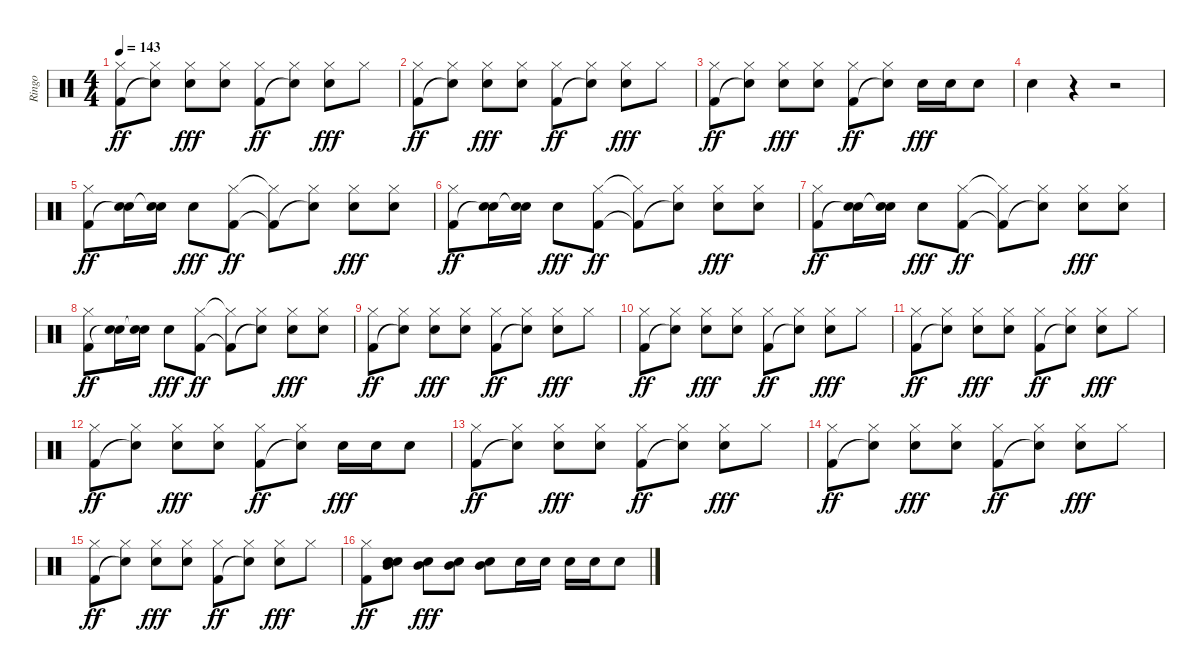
\track ("Ringo" "Ringo") {instrument percussion}
\staff {score}
\articulation defaults
\ts (4 4)
\tempo 143
\clef neutral
\ks c
("Hi-Hat (closed)" "Kick (hit) 2").8{dy ff} ("Hi-Hat (closed)" "Snare (hit)"{t}).8 ("Hi-Hat (closed)" "Snare (hit) 2").8{dy fff} ("Hi-Hat (closed)" "Snare (hit) 2").8 ("Hi-Hat (closed)" "Kick (hit) 2").8{dy ff} ("Hi-Hat (closed)" "Snare (hit)"{t}).8 ("Hi-Hat (closed)" "Snare (hit) 2").8{dy fff} "Hi-Hat (closed)".8 |
("Hi-Hat (closed)" "Kick (hit) 2").8{dy ff} ("Hi-Hat (closed)" "Snare (hit)"{t}).8 ("Hi-Hat (closed)" "Snare (hit) 2").8{dy fff} ("Hi-Hat (closed)" "Snare (hit) 2").8 ("Hi-Hat (closed)" "Kick (hit) 2").8{dy ff} ("Hi-Hat (closed)" "Snare (hit)"{t}).8 ("Hi-Hat (closed)" "Snare (hit) 2").8{dy fff} "Hi-Hat (closed)".8 |
("Hi-Hat (closed)" "Kick (hit) 2").8{dy ff} ("Hi-Hat (closed)" "Snare (hit)"{t}).8 ("Hi-Hat (closed)" "Snare (hit) 2").8{dy fff} ("Hi-Hat (closed)" "Snare (hit) 2").8 ("Hi-Hat (closed)" "Kick (hit) 2").8{dy ff} ("Hi-Hat (closed)" "Snare (hit)"{t}).8 "Snare (hit) 2".16{dy fff} "Snare (hit) 2".16 "Snare (hit) 2".8 |
"Snare (hit) 2".4 r.4 r.2 |
("Hi-Hat (closed)" "Kick (hit) 2").8{dy ff} ("Snare (hit) 2" "Snare (hit)"{t}).16 ("Snare (hit) 2" "Snare (hit)"{t}).16 "Snare (hit) 2".8{dy fff} ("Hi-Hat (closed)" "Kick (hit) 2").8{dy ff} ("Hi-Hat (closed)"{t} "Kick (hit) 2"{t}).8 ("Hi-Hat (closed)" "Snare (hit)"{t}).8 ("Hi-Hat (closed)" "Snare (hit) 2").8{dy fff} ("Hi-Hat (closed)" "Snare (hit) 2").8 |
("Hi-Hat (closed)" "Kick (hit) 2").8{dy ff} ("Snare (hit) 2" "Snare (hit)"{t}).16 ("Snare (hit) 2" "Snare (hit)"{t}).16 "Snare (hit) 2".8{dy fff} ("Hi-Hat (closed)" "Kick (hit) 2").8{dy ff} ("Hi-Hat (closed)"{t} "Kick (hit) 2"{t}).8 ("Hi-Hat (closed)" "Snare (hit)"{t}).8 ("Hi-Hat (closed)" "Snare (hit) 2").8{dy fff} ("Hi-Hat (closed)" "Snare (hit) 2").8 |
("Hi-Hat (closed)" "Kick (hit) 2").8{dy ff} ("Snare (hit) 2" "Snare (hit)"{t}).16 ("Snare (hit) 2" "Snare (hit)"{t}).16 "Snare (hit) 2".8{dy fff} ("Hi-Hat (closed)" "Kick (hit) 2").8{dy ff} ("Hi-Hat (closed)"{t} "Kick (hit) 2"{t}).8 ("Hi-Hat (closed)" "Snare (hit)"{t}).8 ("Hi-Hat (closed)" "Snare (hit) 2").8{dy fff} ("Hi-Hat (closed)" "Snare (hit) 2").8 |
("Hi-Hat (closed)" "Kick (hit) 2").8{dy ff} ("Snare (hit) 2" "Snare (hit)"{t}).16 ("Snare (hit) 2" "Snare (hit)"{t}).16 "Snare (hit) 2".8{dy fff} ("Hi-Hat (closed)" "Kick (hit) 2").8{dy ff} ("Hi-Hat (closed)"{t} "Kick (hit) 2"{t}).8 ("Hi-Hat (closed)" "Snare (hit)"{t}).8 ("Hi-Hat (closed)" "Snare (hit) 2").8{dy fff} ("Hi-Hat (closed)" "Snare (hit) 2").8 |
("Hi-Hat (closed)" "Kick (hit) 2").8{dy ff} ("Hi-Hat (closed)" "Snare (hit)"{t}).8 ("Hi-Hat (closed)" "Snare (hit) 2").8{dy fff} ("Hi-Hat (closed)" "Snare (hit) 2").8 ("Hi-Hat (closed)" "Kick (hit) 2").8{dy ff} ("Hi-Hat (closed)" "Snare (hit)"{t}).8 ("Hi-Hat (closed)" "Snare (hit) 2").8{dy fff} "Hi-Hat (closed)".8 |
("Hi-Hat (closed)" "Kick (hit) 2").8{dy ff} ("Hi-Hat (closed)" "Snare (hit)"{t}).8 ("Hi-Hat (closed)" "Snare (hit) 2").8{dy fff} ("Hi-Hat (closed)" "Snare (hit) 2").8 ("Hi-Hat (closed)" "Kick (hit) 2").8{dy ff} ("Hi-Hat (closed)" "Snare (hit)"{t}).8 ("Hi-Hat (closed)" "Snare (hit) 2").8{dy fff} "Hi-Hat (closed)".8 |
("Hi-Hat (closed)" "Kick (hit) 2").8{dy ff} ("Hi-Hat (closed)" "Snare (hit)"{t}).8 ("Hi-Hat (closed)" "Snare (hit) 2").8{dy fff} ("Hi-Hat (closed)" "Snare (hit) 2").8 ("Hi-Hat (closed)" "Kick (hit) 2").8{dy ff} ("Hi-Hat (closed)" "Snare (hit)"{t}).8 ("Hi-Hat (closed)" "Snare (hit) 2").8{dy fff} "Hi-Hat (closed)".8 |
("Hi-Hat (closed)" "Kick (hit) 2").8{dy ff} ("Hi-Hat (closed)" "Snare (hit)"{t}).8 ("Hi-Hat (closed)" "Snare (hit) 2").8{dy fff} ("Hi-Hat (closed)" "Snare (hit) 2").8 ("Hi-Hat (closed)" "Kick (hit) 2").8{dy ff} ("Hi-Hat (closed)" "Snare (hit)"{t}).8 "Snare (hit) 2".16{dy fff} "Snare (hit) 2".16 "Snare (hit) 2".8 |
("Hi-Hat (closed)" "Kick (hit) 2").8{dy ff} ("Hi-Hat (closed)" "Snare (hit)"{t}).8 ("Hi-Hat (closed)" "Snare (hit) 2").8{dy fff} ("Hi-Hat (closed)" "Snare (hit) 2").8 ("Hi-Hat (closed)" "Kick (hit) 2").8{dy ff} ("Hi-Hat (closed)" "Snare (hit)"{t}).8 ("Hi-Hat (closed)" "Snare (hit) 2").8{dy fff} "Hi-Hat (closed)".8 |
("Hi-Hat (closed)" "Kick (hit) 2").8{dy ff} ("Hi-Hat (closed)" "Snare (hit)"{t}).8 ("Hi-Hat (closed)" "Snare (hit) 2").8{dy fff} ("Hi-Hat (closed)" "Snare (hit) 2").8 ("Hi-Hat (closed)" "Kick (hit) 2").8{dy ff} ("Hi-Hat (closed)" "Snare (hit)"{t}).8 ("Hi-Hat (closed)" "Snare (hit) 2").8{dy fff} "Hi-Hat (closed)".8 |
("Hi-Hat (closed)" "Kick (hit) 2").8{dy ff} ("Hi-Hat (closed)" "Snare (hit)"{t}).8 ("Hi-Hat (closed)" "Snare (hit) 2").8{dy fff} ("Hi-Hat (closed)" "Snare (hit) 2").8 ("Hi-Hat (closed)" "Kick (hit) 2").8{dy ff} ("Hi-Hat (closed)" "Snare (hit)"{t}).8 ("Hi-Hat (closed)" "Snare (hit) 2").8{dy fff} "Hi-Hat (closed)".8 |
("Hi-Hat (closed)" "Kick (hit) 2").8{dy ff} ("Mid Tom (hit)" "Snare (hit) 2" "Snare (hit)").8 ("Mid Tom (hit)" "Snare (hit) 2").8{dy fff} ("Mid Tom (hit)" "Snare (hit) 2").8 ("Mid Tom (hit)" "Snare (hit) 2").8 "Snare (hit) 2".16 "Snare (hit) 2".16 "Snare (hit) 2".16 "Snare (hit) 2".16 "Snare (hit) 2".8
